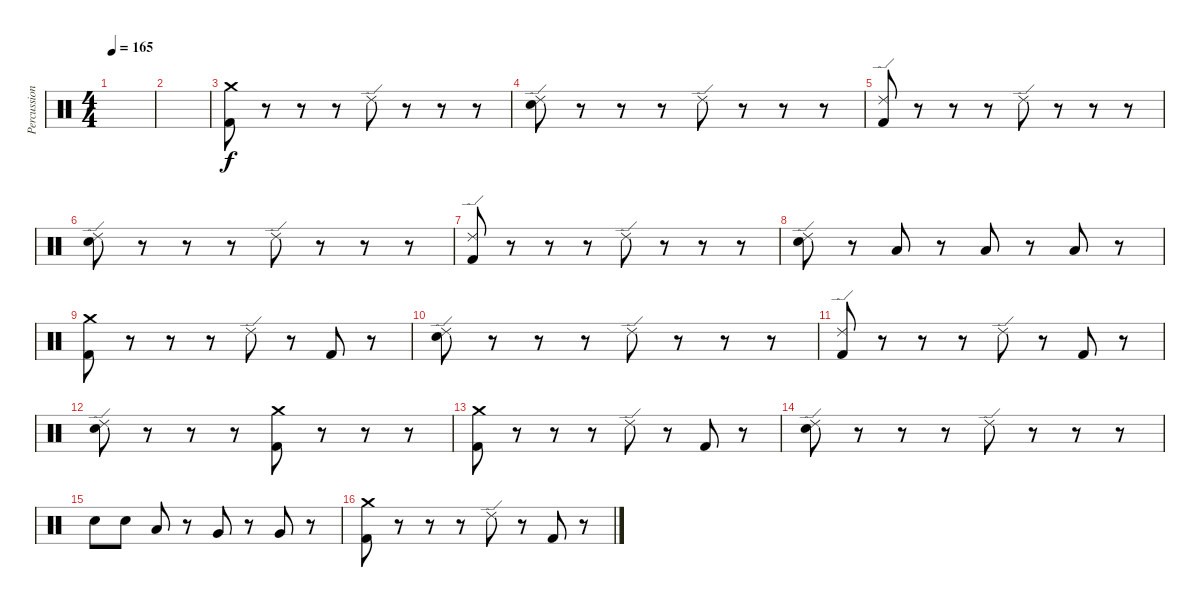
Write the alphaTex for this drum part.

\track ("Percussion" "Percussion") {instrument percussion}
\staff {score}
\articulation defaults
\ts (4 4)
\tempo 165
\clef neutral
\ks c
|
|
("Kick (hit) 2" "Crash medium (hit)").8{dy f} r.8 r.8 r.8 "Ride (edge) 2".8 r.8 r.8 r.8 |
("Ride (edge) 2" "Electric Snare (hit)").8 r.8 r.8 r.8 "Ride (edge) 2".8 r.8 r.8 r.8 |
("Ride (edge) 2" "Kick (hit) 2").8 r.8 r.8 r.8 "Ride (edge) 2".8 r.8 r.8 r.8 |
("Ride (edge) 2" "Electric Snare (hit)").8 r.8 r.8 r.8 "Ride (edge) 2".8 r.8 r.8 r.8 |
("Ride (edge) 2" "Kick (hit) 2").8 r.8 r.8 r.8 "Ride (edge) 2".8 r.8 r.8 r.8 |
("Ride (edge) 2" "Electric Snare (hit)").8 r.8 "Low Tom (hit)".8 r.8 "Low Tom (hit)".8 r.8 "Low Floor Tom (hit)".8 r.8 |
("Kick (hit) 2" "Crash medium (hit)").8 r.8 r.8 r.8 "Ride (edge) 2".8 r.8 "Kick (hit) 2".8 r.8 |
("Ride (edge) 2" "Electric Snare (hit)").8 r.8 r.8 r.8 "Ride (edge) 2".8 r.8 r.8 r.8 |
("Ride (edge) 2" "Kick (hit) 2").8 r.8 r.8 r.8 "Ride (edge) 2".8 r.8 "Kick (hit) 2".8 r.8 |
("Ride (edge) 2" "Electric Snare (hit)").8 r.8 r.8 r.8 ("Crash medium (hit)" "Kick (hit) 2").8 r.8 r.8 r.8 |
("Crash medium (hit)" "Kick (hit) 2").8 r.8 r.8 r.8 "Ride (edge) 2".8 r.8 "Kick (hit) 2".8 r.8 |
("Ride (edge) 2" "Electric Snare (hit)").8 r.8 r.8 r.8 "Ride (edge) 2".8 r.8 r.8 r.8 |
"Electric Snare (hit)".8 "Electric Snare (hit)".8 "Low Tom (hit)".8 r.8 "Very Low Tom (hit)".8 r.8 "Very Low Tom (hit)".8 r.8 |
("Crash medium (hit)" "Kick (hit) 2").8 r.8 r.8 r.8 "Ride (edge) 2".8 r.8 "Kick (hit) 2".8 r.8
